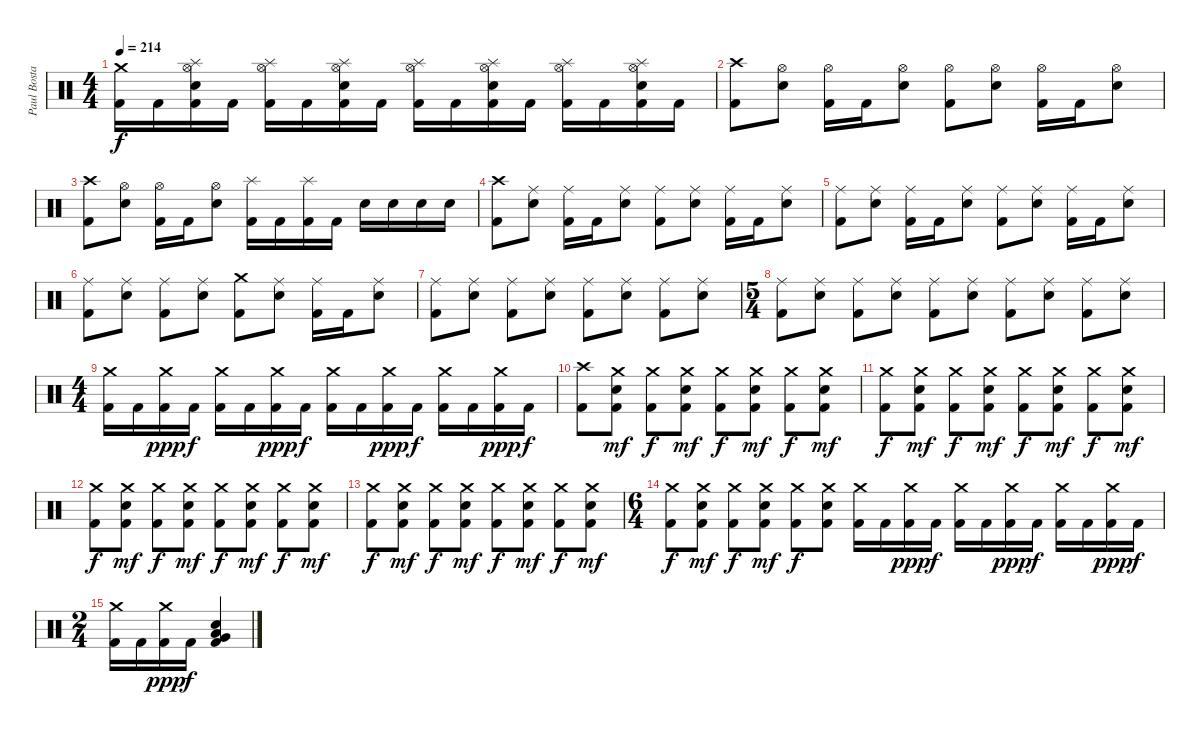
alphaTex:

\track ("Paul Bostaph" "Paul Bosta") {instrument percussion}
\staff {score}
\articulation defaults
\ts (4 4)
\tempo 214
\clef neutral
\ks c
("Kick (hit) 2" "Crash medium (hit)").16{dy f} "Kick (hit) 2".16 ("Kick (hit) 2" "Electric Snare (hit)" "Hi-Hat (open)" "Splash (hit)").16 "Kick (hit) 2".16 ("Kick (hit) 2" "Hi-Hat (open)" "Splash (hit)").16 "Kick (hit) 2".16 ("Kick (hit) 2" "Electric Snare (hit)" "Hi-Hat (open)" "Splash (hit)").16 "Kick (hit) 2".16 ("Kick (hit) 2" "Hi-Hat (open)" "Splash (hit)").16 "Kick (hit) 2".16 ("Kick (hit) 2" "Electric Snare (hit)" "Hi-Hat (open)" "Splash (hit)").16 "Kick (hit) 2".16 ("Kick (hit) 2" "Hi-Hat (open)" "Splash (hit)").16 "Kick (hit) 2".16 ("Kick (hit) 2" "Electric Snare (hit)" "Hi-Hat (open)" "Splash (hit)").16 "Kick (hit) 2".16 |
("Kick (hit) 2" "Crash high (hit)").8 ("Electric Snare (hit)" "Hi-Hat (open)").8 ("Kick (hit) 2" "Hi-Hat (open)").16 "Kick (hit) 2".16 ("Electric Snare (hit)" "Hi-Hat (open)").8 ("Kick (hit) 2" "Hi-Hat (open)").8 ("Electric Snare (hit)" "Hi-Hat (open)").8 ("Kick (hit) 2" "Hi-Hat (open)").16 "Kick (hit) 2".16 ("Electric Snare (hit)" "Hi-Hat (open)").8 |
("Kick (hit) 2" "Crash high (hit)").8 ("Electric Snare (hit)" "Hi-Hat (open)").8 ("Kick (hit) 2" "Hi-Hat (open)").16 "Kick (hit) 2".16 ("Electric Snare (hit)" "Hi-Hat (open)").8 ("Kick (hit) 2" "Splash (hit)").16 "Kick (hit) 2".16 ("Kick (hit) 2" "Splash (hit)").16 "Kick (hit) 2".16 "Electric Snare (hit)".16 "Electric Snare (hit)".16 "Electric Snare (hit)".16 "Electric Snare (hit)".16 |
("Kick (hit) 2" "Crash high (hit)").8 ("Electric Snare (hit)" "Ride (middle)").8 ("Kick (hit) 2" "Ride (middle)").16 "Kick (hit) 2".16 ("Electric Snare (hit)" "Ride (middle)").8 ("Kick (hit) 2" "Ride (middle)").8 ("Electric Snare (hit)" "Ride (middle)").8 ("Kick (hit) 2" "Ride (middle)").16 "Kick (hit) 2".16 ("Electric Snare (hit)" "Ride (middle)").8 |
("Kick (hit) 2" "Ride (middle)").8 ("Electric Snare (hit)" "Ride (middle)").8 ("Kick (hit) 2" "Ride (middle)").16 "Kick (hit) 2".16 ("Electric Snare (hit)" "Ride (middle)").8 ("Kick (hit) 2" "Ride (middle)").8 ("Electric Snare (hit)" "Ride (middle)").8 ("Kick (hit) 2" "Ride (middle)").16 "Kick (hit) 2".16 ("Electric Snare (hit)" "Ride (middle)").8 |
("Kick (hit) 2" "Ride (middle)").8 ("Electric Snare (hit)" "Ride (middle)").8 ("Kick (hit) 2" "Ride (middle)").8 ("Electric Snare (hit)" "Ride (middle)").8 ("Kick (hit) 2" "Crash medium (hit)").8 ("Electric Snare (hit)" "Ride (middle)").8 ("Kick (hit) 2" "Ride (middle)").16 "Kick (hit) 2".16 ("Electric Snare (hit)" "Ride (middle)").8 |
("Kick (hit) 2" "Ride (middle)").8 ("Electric Snare (hit)" "Ride (middle)").8 ("Kick (hit) 2" "Ride (middle)").8 ("Electric Snare (hit)" "Ride (middle)").8 ("Kick (hit) 2" "Ride (middle)").8 ("Electric Snare (hit)" "Ride (middle)").8 ("Kick (hit) 2" "Ride (middle)").8 ("Electric Snare (hit)" "Ride (middle)").8 |
\ts (5 4)
("Kick (hit) 2" "Ride (middle)").8 ("Electric Snare (hit)" "Ride (middle)").8 ("Kick (hit) 2" "Ride (middle)").8 ("Electric Snare (hit)" "Ride (middle)").8 ("Kick (hit) 2" "Ride (middle)").8 ("Electric Snare (hit)" "Ride (middle)").8 ("Kick (hit) 2" "Ride (middle)").8 ("Electric Snare (hit)" "Ride (middle)").8 ("Kick (hit) 2" "Ride (middle)").8 ("Electric Snare (hit)" "Ride (middle)").8 |
\ts (4 4)
("Crash medium (hit)" "Kick (hit) 2").16 "Kick (hit) 2".16 ("Crash medium (hit)" "Kick (hit) 2").16{dy ppp} "Kick (hit) 2".16{dy f} ("Crash medium (hit)" "Kick (hit) 2").16 "Kick (hit) 2".16 ("Crash medium (hit)" "Kick (hit) 2").16{dy ppp} "Kick (hit) 2".16{dy f} ("Crash medium (hit)" "Kick (hit) 2").16 "Kick (hit) 2".16 ("Crash medium (hit)" "Kick (hit) 2").16{dy ppp} "Kick (hit) 2".16{dy f} ("Crash medium (hit)" "Kick (hit) 2").16 "Kick (hit) 2".16 ("Crash medium (hit)" "Kick (hit) 2").16{dy ppp} "Kick (hit) 2".16{dy f} |
("Kick (hit) 2" "Crash high (hit)").8 ("Kick (hit) 2" "Crash medium (hit)" "Electric Snare (hit)").8{dy mf} ("Kick (hit) 2" "Crash medium (hit)").8{dy f} ("Kick (hit) 2" "Crash medium (hit)" "Electric Snare (hit)").8{dy mf} ("Kick (hit) 2" "Crash medium (hit)").8{dy f} ("Kick (hit) 2" "Crash medium (hit)" "Electric Snare (hit)").8{dy mf} ("Kick (hit) 2" "Crash medium (hit)").8{dy f} ("Kick (hit) 2" "Crash medium (hit)" "Electric Snare (hit)").8{dy mf} |
("Kick (hit) 2" "Crash medium (hit)").8{dy f} ("Kick (hit) 2" "Crash medium (hit)" "Electric Snare (hit)").8{dy mf} ("Kick (hit) 2" "Crash medium (hit)").8{dy f} ("Kick (hit) 2" "Crash medium (hit)" "Electric Snare (hit)").8{dy mf} ("Kick (hit) 2" "Crash medium (hit)").8{dy f} ("Kick (hit) 2" "Crash medium (hit)" "Electric Snare (hit)").8{dy mf} ("Kick (hit) 2" "Crash medium (hit)").8{dy f} ("Kick (hit) 2" "Crash medium (hit)" "Electric Snare (hit)").8{dy mf} |
("Kick (hit) 2" "Crash medium (hit)").8{dy f} ("Kick (hit) 2" "Crash medium (hit)" "Electric Snare (hit)").8{dy mf} ("Kick (hit) 2" "Crash medium (hit)").8{dy f} ("Kick (hit) 2" "Crash medium (hit)" "Electric Snare (hit)").8{dy mf} ("Kick (hit) 2" "Crash medium (hit)").8{dy f} ("Kick (hit) 2" "Crash medium (hit)" "Electric Snare (hit)").8{dy mf} ("Kick (hit) 2" "Crash medium (hit)").8{dy f} ("Kick (hit) 2" "Crash medium (hit)" "Electric Snare (hit)").8{dy mf} |
("Kick (hit) 2" "Crash medium (hit)").8{dy f} ("Kick (hit) 2" "Crash medium (hit)" "Electric Snare (hit)").8{dy mf} ("Kick (hit) 2" "Crash medium (hit)").8{dy f} ("Kick (hit) 2" "Crash medium (hit)" "Electric Snare (hit)").8{dy mf} ("Kick (hit) 2" "Crash medium (hit)").8{dy f} ("Kick (hit) 2" "Crash medium (hit)" "Electric Snare (hit)").8{dy mf} ("Kick (hit) 2" "Crash medium (hit)").8{dy f} ("Kick (hit) 2" "Crash medium (hit)" "Electric Snare (hit)").8{dy mf} |
\ts (6 4)
("Kick (hit) 2" "Crash medium (hit)").8{dy f} ("Kick (hit) 2" "Crash medium (hit)" "Electric Snare (hit)").8{dy mf} ("Kick (hit) 2" "Crash medium (hit)").8{dy f} ("Kick (hit) 2" "Crash medium (hit)" "Electric Snare (hit)").8{dy mf} ("Kick (hit) 2" "Crash medium (hit)").8{dy f} ("Kick (hit) 2" "Crash medium (hit)" "Electric Snare (hit)").8 ("Kick (hit) 2" "Crash medium (hit)").16 "Kick (hit) 2".16 ("Kick (hit) 2" "Crash medium (hit)").16{dy ppp} "Kick (hit) 2".16{dy f} ("Kick (hit) 2" "Crash medium (hit)").16 "Kick (hit) 2".16 ("Kick (hit) 2" "Crash medium (hit)").16{dy ppp} "Kick (hit) 2".16{dy f} ("Kick (hit) 2" "Crash medium (hit)").16 "Kick (hit) 2".16 ("Kick (hit) 2" "Crash medium (hit)").16{dy ppp} "Kick (hit) 2".16{dy f} |
\ts (2 4)
("Kick (hit) 2" "Crash medium (hit)").16 "Kick (hit) 2".16 ("Kick (hit) 2" "Crash medium (hit)").16{dy ppp} "Kick (hit) 2".16{dy f} ("Very Low Tom (hit)" "Electric Snare (hit)" "Low Floor Tom (hit)" "Kick (hit) 2").4
